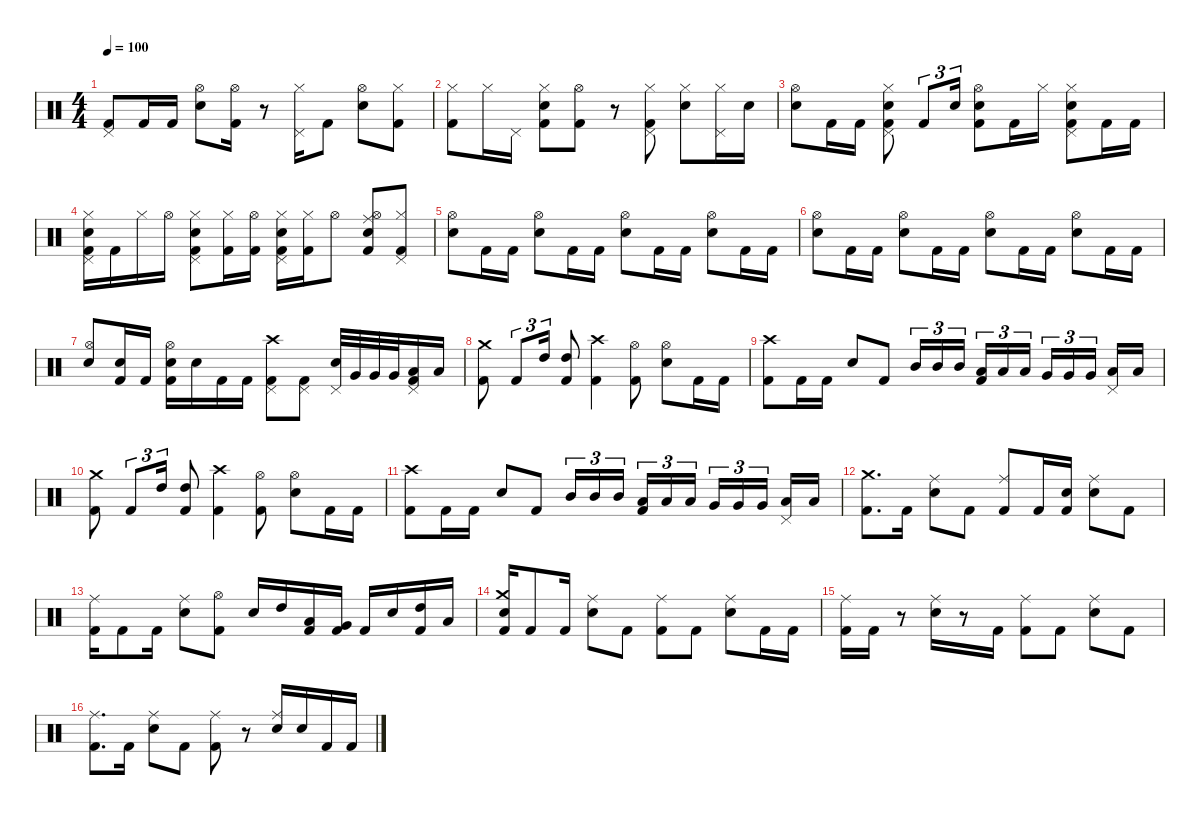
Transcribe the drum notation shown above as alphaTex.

\defaultSystemsLayout 4
\hideDynamics
\bracketExtendMode nobrackets
\singleTrackTrackNamePolicy hidden
\multiTrackTrackNamePolicy hidden
\firstSystemTrackNameMode fullname
\firstSystemTrackNameOrientation horizontal
\otherSystemsTrackNameOrientation horizontal
\track ("Drums" "drm.") {instrument percussion}
\staff {score}
\articulation defaults
\ts (4 4)
\tempo 100
\clef neutral
\ks c
("Pedal Hi-Hat (hit)" "Kick (hit) 2").8{dy f beam Up} "Kick (hit) 2".16{beam Up} "Kick (hit) 2".16{beam Up} ("Hi-Hat (open)" "Snare (hit) 2").8{beam Down} ("Kick (hit) 2" "Hi-Hat (open)").16{beam Down} r.8{beam Down} ("Hi-Hat (closed)" "Pedal Hi-Hat (hit)").16{beam Down} "Kick (hit) 2".8{beam Down} ("Hi-Hat (open)" "Snare (hit) 2").8{beam Down} ("Hi-Hat (closed)" "Kick (hit) 2").8{beam Down} |
("Kick (hit) 2" "Hi-Hat (closed)").8{beam Down} "Hi-Hat (closed)".16{beam Down} "Pedal Hi-Hat (hit)".16{beam Down} ("Hi-Hat (closed)" "Kick (hit) 2" "Snare (hit) 2").8{beam Down} ("Kick (hit) 2" "Hi-Hat (open)").8{beam Down} r.8{beam Down} ("Pedal Hi-Hat (hit)" "Hi-Hat (closed)" "Kick (hit) 2").8{beam Up} ("Hi-Hat (closed)" "Snare (hit) 2").8{beam Down} ("Pedal Hi-Hat (hit)" "Hi-Hat (closed)").16{beam Down} "Snare (hit) 2".16{dy p beam Down} |
("Hi-Hat (open)" "Snare (hit) 2").8{dy f beam Down} "Kick (hit) 2".16{beam Down} "Kick (hit) 2".16{beam Down} ("Kick (hit) 2" "Hi-Hat (closed)" "Pedal Hi-Hat (hit)" "Snare (hit) 2").8{beam Down} "Kick (hit) 2".8{tu (3 2) beam Up} "Snare (hit) 2".16{tu (3 2) dy p beam Up} ("Kick (hit) 2" "Hi-Hat (open)" "Snare (hit) 2").8{dy f beam Down} "Kick (hit) 2".16{beam Down} "Hi-Hat (closed)".16{beam Down} ("Kick (hit) 2" "Pedal Hi-Hat (hit)" "Hi-Hat (closed)" "Snare (hit) 2").8{beam Down} "Kick (hit) 2".16{beam Down} "Kick (hit) 2".16{beam Down} |
("Kick (hit) 2" "Pedal Hi-Hat (hit)" "Hi-Hat (closed)" "Snare (hit) 2").16{beam Down} "Kick (hit) 2".16{beam Down} "Hi-Hat (closed)".16{beam Down} "Hi-Hat (open)".16{beam Down} ("Kick (hit) 2" "Pedal Hi-Hat (hit)" "Hi-Hat (closed)" "Snare (hit) 2").8{beam Down} ("Hi-Hat (closed)" "Kick (hit) 2").16{beam Down} ("Hi-Hat (open)" "Kick (hit) 2").16{beam Down} ("Kick (hit) 2" "Pedal Hi-Hat (hit)" "Hi-Hat (closed)" "Snare (hit) 2").16{beam Down} ("Hi-Hat (closed)" "Kick (hit) 2").16{beam Down} "Hi-Hat (open)".8{beam Down} ("Kick (hit) 2" "Ride (middle)" "Snare (hit) 2" "Hi-Hat (open)").8{beam Up} ("Pedal Hi-Hat (hit)" "Hi-Hat (closed)" "Kick (hit) 2").8{beam Up} |
("Hi-Hat (open)" "Snare (hit) 2").8{beam Down} "Kick (hit) 2".16{beam Down} "Kick (hit) 2".16{beam Down} ("Hi-Hat (open)" "Snare (hit) 2").8{beam Down} "Kick (hit) 2".16{beam Down} "Kick (hit) 2".16{beam Down} ("Hi-Hat (open)" "Snare (hit) 2").8{beam Down} "Kick (hit) 2".16{beam Down} "Kick (hit) 2".16{beam Down} ("Hi-Hat (open)" "Snare (hit) 2").8{beam Down} "Kick (hit) 2".16{beam Down} "Kick (hit) 2".16{beam Down} |
("Hi-Hat (open)" "Snare (hit) 2").8{beam Down} "Kick (hit) 2".16{beam Down} "Kick (hit) 2".16{beam Down} ("Hi-Hat (open)" "Snare (hit) 2").8{beam Down} "Kick (hit) 2".16{beam Down} "Kick (hit) 2".16{beam Down} ("Hi-Hat (open)" "Snare (hit) 2").8{beam Down} "Kick (hit) 2".16{beam Down} "Kick (hit) 2".16{beam Down} ("Hi-Hat (open)" "Snare (hit) 2").8{beam Down} "Kick (hit) 2".16{beam Down} "Kick (hit) 2".16{beam Down} |
("Hi-Hat (open)" "Snare (hit) 2").8{beam Up} ("Kick (hit) 2" "Snare (hit) 2").16{beam Up} "Kick (hit) 2".16{beam Up} ("Kick (hit) 2" "Hi-Hat (open)" "Snare (hit) 2").16{beam Down} "Snare (hit) 2".16{beam Down} "Kick (hit) 2".16{beam Down} "Kick (hit) 2".16{beam Down} ("Pedal Hi-Hat (hit)" "Kick (hit) 2" "Crash high (hit)").8{dy mf beam Down} ("Pedal Hi-Hat (hit)" "Kick (hit) 2").8{beam Down} ("Pedal Hi-Hat (hit)" "Snare (hit) 2").32{dy mp beam Up} "Very Low Tom (hit)".32{dy mf beam Up} "Very Low Tom (hit)".32{beam Up} "Very Low Tom (hit)".32{beam Up} ("Pedal Hi-Hat (hit)" "Kick (hit) 2" "Low Floor Tom (hit)").16{beam Up} "Low Floor Tom (hit)".16{beam Up} |
("Kick (hit) 2" "Crash medium (hit)").8{dy f beam Down} "Kick (hit) 2".8{tu (3 2) beam Up} "High Tom (hit)".16{tu (3 2) dy mp beam Up} ("Kick (hit) 2" "High Tom (hit)").8{dy f beam Up} ("Crash high (hit)" "Kick (hit) 2").4{dy mf beam Down} ("Kick (hit) 2" "Hi-Hat (open)").8{dy f beam Down} ("Snare (hit) 2" "Hi-Hat (open)").8{beam Down} "Kick (hit) 2".16{beam Down} "Kick (hit) 2".16{beam Down} |
("Kick (hit) 2" "Crash high (hit)").8{beam Down} "Kick (hit) 2".16{beam Down} "Kick (hit) 2".16{beam Down} "Snare (hit) 2".8{beam Up} "Kick (hit) 2".8{beam Up} "Mid Tom (hit)".16{tu (3 2) dy mf beam Up} "Mid Tom (hit)".16{tu (3 2) beam Up} "Mid Tom (hit)".16{tu (3 2) beam Up} ("Kick (hit) 2" "Low Tom (hit)").16{tu (3 2) dy f beam Up} "Low Tom (hit)".16{tu (3 2) dy mp beam Up} "Low Tom (hit)".16{tu (3 2) beam Up} "Very Low Tom (hit)".16{tu (3 2) beam Up} "Very Low Tom (hit)".16{tu (3 2) beam Up} "Very Low Tom (hit)".16{tu (3 2) beam Up} ("Pedal Hi-Hat (hit)" "Low Floor Tom (hit)").16{dy mf beam Up} "Low Floor Tom (hit)".16{dy mp beam Up} |
("Kick (hit) 2" "Crash medium (hit)").8{dy f beam Down} "Kick (hit) 2".8{tu (3 2) beam Up} "High Tom (hit)".16{tu (3 2) dy mp beam Up} ("Kick (hit) 2" "High Tom (hit)").8{dy f beam Up} ("Crash high (hit)" "Kick (hit) 2").4{dy mf beam Down} ("Kick (hit) 2" "Hi-Hat (open)").8{dy f beam Down} ("Snare (hit) 2" "Hi-Hat (open)").8{beam Down} "Kick (hit) 2".16{beam Down} "Kick (hit) 2".16{beam Down} |
("Kick (hit) 2" "Crash high (hit)").8{beam Down} "Kick (hit) 2".16{beam Down} "Kick (hit) 2".16{beam Down} "Snare (hit) 2".8{beam Up} "Kick (hit) 2".8{beam Up} "Mid Tom (hit)".16{tu (3 2) dy mf beam Up} "Mid Tom (hit)".16{tu (3 2) beam Up} "Mid Tom (hit)".16{tu (3 2) beam Up} ("Kick (hit) 2" "Low Tom (hit)").16{tu (3 2) dy f beam Up} "Low Tom (hit)".16{tu (3 2) dy mp beam Up} "Low Tom (hit)".16{tu (3 2) beam Up} "Very Low Tom (hit)".16{tu (3 2) beam Up} "Very Low Tom (hit)".16{tu (3 2) beam Up} "Very Low Tom (hit)".16{tu (3 2) beam Up} ("Pedal Hi-Hat (hit)" "Low Floor Tom (hit)").16{dy mf beam Up} "Low Floor Tom (hit)".16{dy mp beam Up} |
("Crash medium (hit)" "Kick (hit) 2").8{d dy mf beam Down} "Kick (hit) 2".16{dy f beam Down} ("Ride (middle)" "Snare (hit) 2").8{beam Down} "Kick (hit) 2".8{beam Down} ("Kick (hit) 2" "Ride (middle)").8{beam Up} "Kick (hit) 2".16{beam Up} ("Kick (hit) 2" "Snare (hit) 2").16{beam Up} ("Ride (middle)" "Snare (hit) 2").8{beam Down} "Kick (hit) 2".8{beam Down} |
("Ride (middle)" "Kick (hit) 2").16{beam Down} "Kick (hit) 2".8{beam Down} "Kick (hit) 2".16{beam Down} ("Ride (middle)" "Snare (hit) 2").8{beam Down} ("Kick (hit) 2" "Hi-Hat (open)").8{beam Down} "Snare (hit) 2".16{beam Up} "High Tom (hit)".16{dy mp beam Up} ("Low Tom (hit)" "Kick (hit) 2").16{beam Up} ("Very Low Tom (hit)" "Kick (hit) 2").16{beam Up} "Kick (hit) 2".16{dy f beam Up} "Snare (hit) 2".16{beam Up} ("Kick (hit) 2" "High Tom (hit)").16{beam Up} "Low Tom (hit)".16{dy mp beam Up} |
("Kick (hit) 2" "Snare (hit) 2" "Crash medium (hit)").16{dy f beam Up} "Kick (hit) 2".8{beam Up} "Kick (hit) 2".16{beam Up} ("Ride (middle)" "Snare (hit) 2").8{beam Down} "Kick (hit) 2".8{beam Down} ("Kick (hit) 2" "Ride (middle)").8{beam Down} "Kick (hit) 2".8{beam Down} ("Snare (hit) 2" "Ride (middle)").8{beam Down} "Kick (hit) 2".16{beam Down} "Kick (hit) 2".16{beam Down} |
("Ride (middle)" "Kick (hit) 2").16{beam Down} "Kick (hit) 2".16{beam Down} r.8{beam Down} ("Ride (middle)" "Snare (hit) 2").16{beam Down} r.8{beam Down} "Kick (hit) 2".16{dy mf beam Down} ("Kick (hit) 2" "Ride (middle)").8{dy f beam Down} "Kick (hit) 2".8{beam Down} ("Snare (hit) 2" "Ride (middle)").8{beam Down} "Kick (hit) 2".8{beam Down} |
("Kick (hit) 2" "Ride (middle)").8{d beam Down} "Kick (hit) 2".16{beam Down} ("Snare (hit) 2" "Ride (middle)").8{beam Down} "Kick (hit) 2".8{beam Down} ("Kick (hit) 2" "Ride (middle)").8{beam Down} r.8{beam Down} ("Snare (hit) 2" "Ride (middle)").16{beam Up} "Snare (hit) 2".16{dy mp beam Up} "Kick (hit) 2".16{dy f beam Up} "Kick (hit) 2".16{beam Up}
